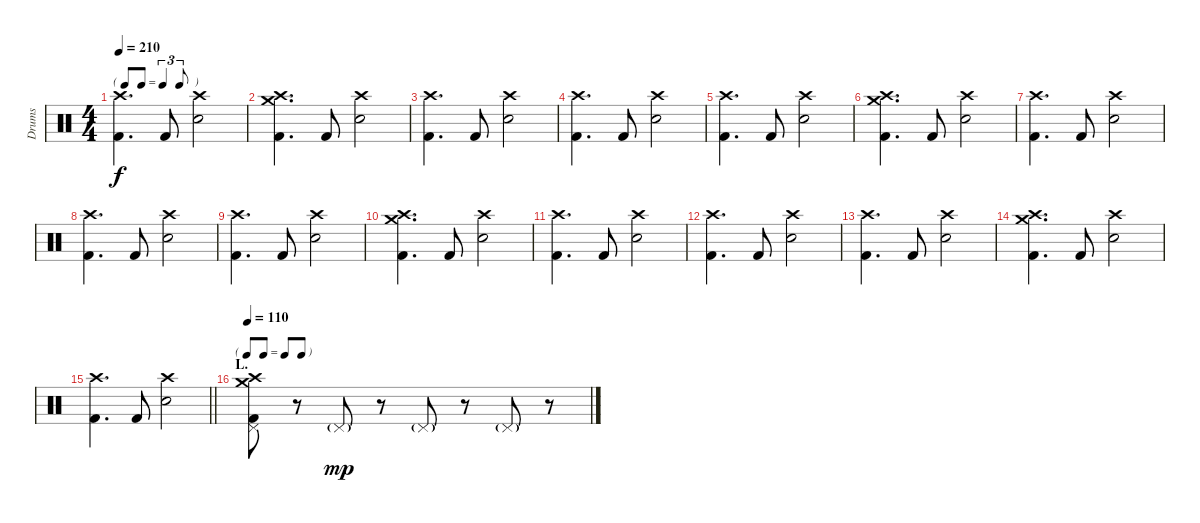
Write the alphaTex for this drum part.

\track ("Drums" "Drums") {instrument percussion}
\staff {score}
\articulation defaults
\ts (4 4)
\tf triplet8th
\tempo 210
\clef neutral
\ks c
("Crash high (hit)" "Kick (hit) 2").4{d dy f} "Kick (hit) 2".8 ("Crash high (hit)" "Electric Snare (hit)").2 |
("Crash medium (hit)" "Crash high (hit)" "Kick (hit) 2").4{d} "Kick (hit) 2".8 ("Crash high (hit)" "Electric Snare (hit)").2 |
("Crash high (hit)" "Kick (hit) 2").4{d} "Kick (hit) 2".8 ("Crash high (hit)" "Electric Snare (hit)").2 |
("Crash high (hit)" "Kick (hit) 2").4{d} "Kick (hit) 2".8 ("Crash high (hit)" "Electric Snare (hit)").2 |
("Crash high (hit)" "Kick (hit) 2").4{d} "Kick (hit) 2".8 ("Crash high (hit)" "Electric Snare (hit)").2 |
("Crash medium (hit)" "Crash high (hit)" "Kick (hit) 2").4{d} "Kick (hit) 2".8 ("Crash high (hit)" "Electric Snare (hit)").2 |
("Crash high (hit)" "Kick (hit) 2").4{d} "Kick (hit) 2".8 ("Crash high (hit)" "Electric Snare (hit)").2 |
("Crash high (hit)" "Kick (hit) 2").4{d} "Kick (hit) 2".8 ("Crash high (hit)" "Electric Snare (hit)").2 |
("Crash high (hit)" "Kick (hit) 2").4{d} "Kick (hit) 2".8 ("Crash high (hit)" "Electric Snare (hit)").2 |
("Crash medium (hit)" "Crash high (hit)" "Kick (hit) 2").4{d} "Kick (hit) 2".8 ("Crash high (hit)" "Electric Snare (hit)").2 |
("Crash high (hit)" "Kick (hit) 2").4{d} "Kick (hit) 2".8 ("Crash high (hit)" "Electric Snare (hit)").2 |
("Crash high (hit)" "Kick (hit) 2").4{d} "Kick (hit) 2".8 ("Crash high (hit)" "Electric Snare (hit)").2 |
("Crash high (hit)" "Kick (hit) 2").4{d} "Kick (hit) 2".8 ("Crash high (hit)" "Electric Snare (hit)").2 |
("Crash medium (hit)" "Crash high (hit)" "Kick (hit) 2").4{d} "Kick (hit) 2".8 ("Crash high (hit)" "Electric Snare (hit)").2 |
\barLineRight lightlight
("Crash high (hit)" "Kick (hit) 2").4{d} "Kick (hit) 2".8 ("Crash high (hit)" "Electric Snare (hit)").2 |
\tf none
\section ("" "L.")
\tempo 110
("Crash medium (hit)" "Crash high (hit)" "Pedal Hi-Hat (hit)" "Kick (hit) 2").8 r.8 "Pedal Hi-Hat (hit)"{g}.8{dy mp} r.8 "Pedal Hi-Hat (hit)"{g}.8 r.8 "Pedal Hi-Hat (hit)"{g}.8 r.8
